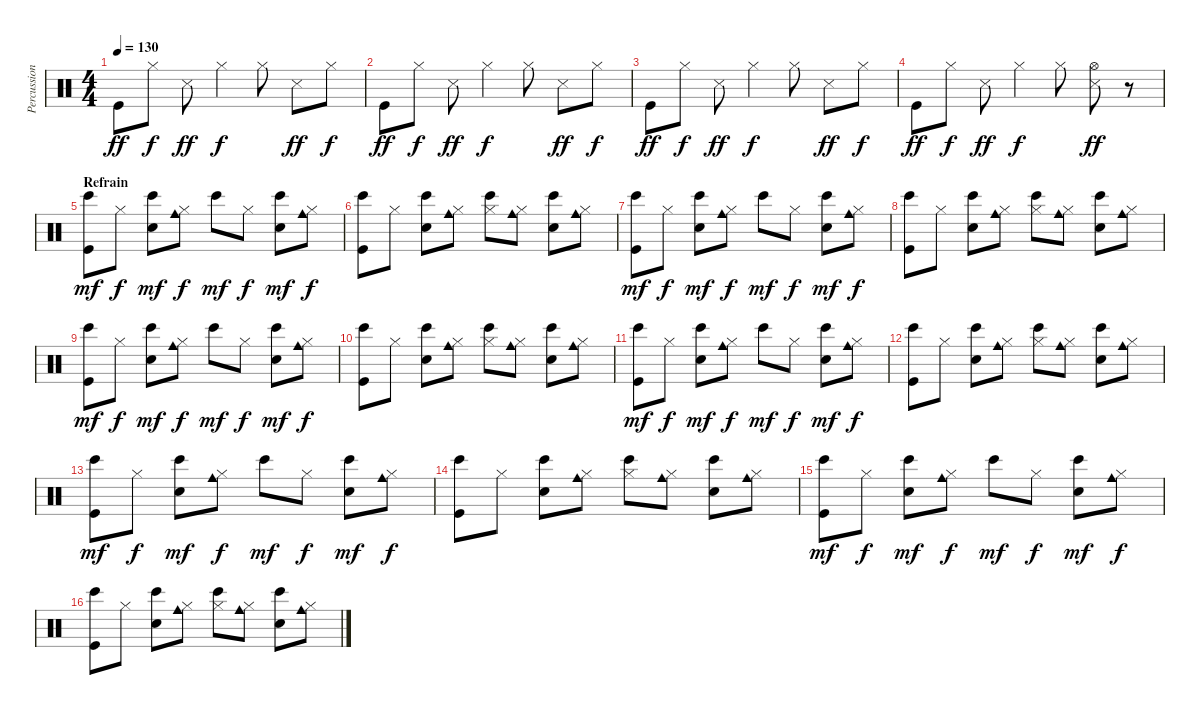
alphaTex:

\track ("Percussions" "Percussion") {instrument percussion}
\staff {score}
\articulation defaults
\ts (4 4)
\tempo 130
\clef neutral
\ks c "Kick (hit)".8{dy ff} "Hi-Hat (closed)".8{dy f} "Snare (side stick) 3".8{dy ff} "Hi-Hat (closed)".4{dy f} "Hi-Hat (closed)".8 "Snare (side stick) 3".8{dy ff} "Hi-Hat (closed)".8{dy f}
|
"Kick (hit)".8{dy ff} "Hi-Hat (closed)".8{dy f} "Snare (side stick) 3".8{dy ff} "Hi-Hat (closed)".4{dy f} "Hi-Hat (closed)".8 "Snare (side stick) 3".8{dy ff} "Hi-Hat (closed)".8{dy f} |
"Kick (hit)".8{dy ff} "Hi-Hat (closed)".8{dy f} "Snare (side stick) 3".8{dy ff} "Hi-Hat (closed)".4{dy f} "Hi-Hat (closed)".8 "Snare (side stick) 3".8{dy ff} "Hi-Hat (closed)".8{dy f} |
"Kick (hit)".8{dy ff} "Hi-Hat (closed)".8{dy f} "Snare (side stick) 3".8{dy ff} "Hi-Hat (closed)".4{dy f} "Hi-Hat (closed)".8 ("Hi-Hat (open)" "Snare (side stick) 3").8{dy ff} r.8 |
\section ("" "Refrain")
("Bongo High (hit)" "Kick (hit)").8{dy mf} "Hi-Hat (closed)".8{dy f} ("Bongo High (hit)" "Electric Snare (hit)").8{dy mf} ("Hi-Hat (closed)" "Cowbell medium (hit)").8{dy f} "Bongo High (hit)".8{dy mf} "Hi-Hat (closed)".8{dy f} ("Bongo High (hit)" "Electric Snare (hit)").8{dy mf} ("Hi-Hat (closed)" "Cowbell medium (hit)").8{dy f} |
("Bongo High (hit)" "Kick (hit)").8 "Hi-Hat (closed)".8 ("Bongo High (hit)" "Electric Snare (hit)").8 ("Hi-Hat (closed)" "Cowbell medium (hit)").8 ("Hi-Hat (closed)" "Bongo High (hit)").8 ("Hi-Hat (closed)" "Cowbell medium (hit)").8 ("Bongo High (hit)" "Electric Snare (hit)").8 ("Hi-Hat (closed)" "Cowbell medium (hit)").8 |
("Bongo High (hit)" "Kick (hit)").8{dy mf} "Hi-Hat (closed)".8{dy f} ("Bongo High (hit)" "Electric Snare (hit)").8{dy mf} ("Hi-Hat (closed)" "Cowbell medium (hit)").8{dy f} "Bongo High (hit)".8{dy mf} "Hi-Hat (closed)".8{dy f} ("Bongo High (hit)" "Electric Snare (hit)").8{dy mf} ("Hi-Hat (closed)" "Cowbell medium (hit)").8{dy f} |
("Bongo High (hit)" "Kick (hit)").8 "Hi-Hat (closed)".8 ("Bongo High (hit)" "Electric Snare (hit)").8 ("Hi-Hat (closed)" "Cowbell medium (hit)").8 ("Hi-Hat (closed)" "Bongo High (hit)").8 ("Hi-Hat (closed)" "Cowbell medium (hit)").8 ("Bongo High (hit)" "Electric Snare (hit)").8 ("Hi-Hat (closed)" "Cowbell medium (hit)").8 |
("Bongo High (hit)" "Kick (hit)").8{dy mf} "Hi-Hat (closed)".8{dy f} ("Bongo High (hit)" "Electric Snare (hit)").8{dy mf} ("Hi-Hat (closed)" "Cowbell medium (hit)").8{dy f} "Bongo High (hit)".8{dy mf} "Hi-Hat (closed)".8{dy f} ("Bongo High (hit)" "Electric Snare (hit)").8{dy mf} ("Hi-Hat (closed)" "Cowbell medium (hit)").8{dy f} |
("Bongo High (hit)" "Kick (hit)").8 "Hi-Hat (closed)".8 ("Bongo High (hit)" "Electric Snare (hit)").8 ("Hi-Hat (closed)" "Cowbell medium (hit)").8 ("Hi-Hat (closed)" "Bongo High (hit)").8 ("Hi-Hat (closed)" "Cowbell medium (hit)").8 ("Bongo High (hit)" "Electric Snare (hit)").8 ("Hi-Hat (closed)" "Cowbell medium (hit)").8 |
("Bongo High (hit)" "Kick (hit)").8{dy mf} "Hi-Hat (closed)".8{dy f} ("Bongo High (hit)" "Electric Snare (hit)").8{dy mf} ("Hi-Hat (closed)" "Cowbell medium (hit)").8{dy f} "Bongo High (hit)".8{dy mf} "Hi-Hat (closed)".8{dy f} ("Bongo High (hit)" "Electric Snare (hit)").8{dy mf} ("Hi-Hat (closed)" "Cowbell medium (hit)").8{dy f} |
("Bongo High (hit)" "Kick (hit)").8 "Hi-Hat (closed)".8 ("Bongo High (hit)" "Electric Snare (hit)").8 ("Hi-Hat (closed)" "Cowbell medium (hit)").8 ("Hi-Hat (closed)" "Bongo High (hit)").8 ("Hi-Hat (closed)" "Cowbell medium (hit)").8 ("Bongo High (hit)" "Electric Snare (hit)").8 ("Hi-Hat (closed)" "Cowbell medium (hit)").8 |
("Bongo High (hit)" "Kick (hit)").8{dy mf} "Hi-Hat (closed)".8{dy f} ("Bongo High (hit)" "Electric Snare (hit)").8{dy mf} ("Hi-Hat (closed)" "Cowbell medium (hit)").8{dy f} "Bongo High (hit)".8{dy mf} "Hi-Hat (closed)".8{dy f} ("Bongo High (hit)" "Electric Snare (hit)").8{dy mf} ("Hi-Hat (closed)" "Cowbell medium (hit)").8{dy f} |
("Bongo High (hit)" "Kick (hit)").8 "Hi-Hat (closed)".8 ("Bongo High (hit)" "Electric Snare (hit)").8 ("Hi-Hat (closed)" "Cowbell medium (hit)").8 ("Hi-Hat (closed)" "Bongo High (hit)").8 ("Hi-Hat (closed)" "Cowbell medium (hit)").8 ("Bongo High (hit)" "Electric Snare (hit)").8 ("Hi-Hat (closed)" "Cowbell medium (hit)").8 |
("Bongo High (hit)" "Kick (hit)").8{dy mf} "Hi-Hat (closed)".8{dy f} ("Bongo High (hit)" "Electric Snare (hit)").8{dy mf} ("Hi-Hat (closed)" "Cowbell medium (hit)").8{dy f} "Bongo High (hit)".8{dy mf} "Hi-Hat (closed)".8{dy f} ("Bongo High (hit)" "Electric Snare (hit)").8{dy mf} ("Hi-Hat (closed)" "Cowbell medium (hit)").8{dy f} |
("Bongo High (hit)" "Kick (hit)").8 "Hi-Hat (closed)".8 ("Bongo High (hit)" "Electric Snare (hit)").8 ("Hi-Hat (closed)" "Cowbell medium (hit)").8 ("Hi-Hat (closed)" "Bongo High (hit)").8 ("Hi-Hat (closed)" "Cowbell medium (hit)").8 ("Bongo High (hit)" "Electric Snare (hit)").8 ("Hi-Hat (closed)" "Cowbell medium (hit)").8
